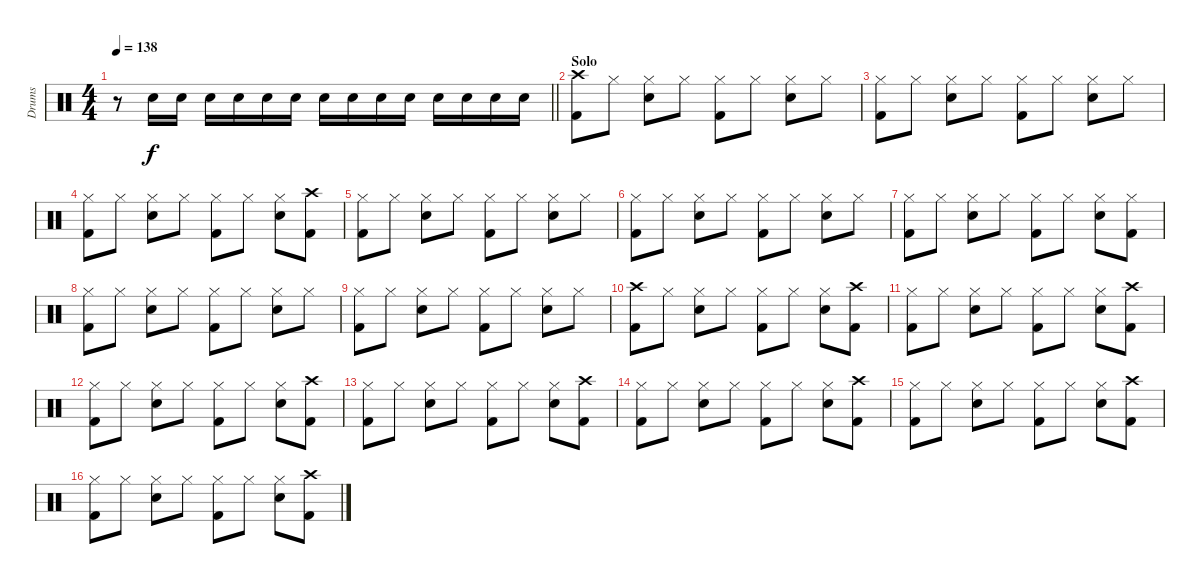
\track ("Drums" "Drums") {instrument percussion}
\staff {score}
\articulation defaults
\ts (4 4)
\tempo 138
\clef neutral
\barLineRight lightlight
\ks c
r.8{dy f} "Snare (hit) 2".16 "Snare (hit) 2".16 "Snare (hit) 2".16 "Snare (hit) 2".16 "Snare (hit) 2".16 "Snare (hit) 2".16 "Snare (hit) 2".16 "Snare (hit) 2".16 "Snare (hit) 2".16 "Snare (hit) 2".16 "Snare (hit) 2".16 "Snare (hit) 2".16 "Snare (hit) 2".16 "Snare (hit) 2".16 |
\section ("" "Solo")
("Crash high (hit)" "Kick (hit) 2").8 "Hi-Hat (closed)".8 ("Hi-Hat (closed)" "Snare (hit) 2").8 "Hi-Hat (closed)".8 ("Hi-Hat (closed)" "Kick (hit) 2").8 "Hi-Hat (closed)".8 ("Hi-Hat (closed)" "Snare (hit) 2").8 "Hi-Hat (closed)".8 |
("Hi-Hat (closed)" "Kick (hit) 2").8 "Hi-Hat (closed)".8 ("Hi-Hat (closed)" "Snare (hit) 2").8 "Hi-Hat (closed)".8 ("Hi-Hat (closed)" "Kick (hit) 2").8 "Hi-Hat (closed)".8 ("Hi-Hat (closed)" "Snare (hit) 2").8 "Hi-Hat (closed)".8 |
("Hi-Hat (closed)" "Kick (hit) 2").8 "Hi-Hat (closed)".8 ("Hi-Hat (closed)" "Snare (hit) 2").8 "Hi-Hat (closed)".8 ("Hi-Hat (closed)" "Kick (hit) 2").8 "Hi-Hat (closed)".8 ("Hi-Hat (closed)" "Snare (hit) 2").8 ("Crash high (hit)" "Kick (hit) 2").8 |
("Hi-Hat (closed)" "Kick (hit) 2").8 "Hi-Hat (closed)".8 ("Hi-Hat (closed)" "Snare (hit) 2").8 "Hi-Hat (closed)".8 ("Hi-Hat (closed)" "Kick (hit) 2").8 "Hi-Hat (closed)".8 ("Hi-Hat (closed)" "Snare (hit) 2").8 "Hi-Hat (closed)".8 |
("Hi-Hat (closed)" "Kick (hit) 2").8 "Hi-Hat (closed)".8 ("Hi-Hat (closed)" "Snare (hit) 2").8 "Hi-Hat (closed)".8 ("Hi-Hat (closed)" "Kick (hit) 2").8 "Hi-Hat (closed)".8 ("Hi-Hat (closed)" "Snare (hit) 2").8 "Hi-Hat (closed)".8 |
("Hi-Hat (closed)" "Kick (hit) 2").8 "Hi-Hat (closed)".8 ("Hi-Hat (closed)" "Snare (hit) 2").8 "Hi-Hat (closed)".8 ("Hi-Hat (closed)" "Kick (hit) 2").8 "Hi-Hat (closed)".8 ("Hi-Hat (closed)" "Snare (hit) 2").8 ("Hi-Hat (closed)" "Kick (hit) 2").8 |
("Hi-Hat (closed)" "Kick (hit) 2").8 "Hi-Hat (closed)".8 ("Hi-Hat (closed)" "Snare (hit) 2").8 "Hi-Hat (closed)".8 ("Hi-Hat (closed)" "Kick (hit) 2").8 "Hi-Hat (closed)".8 ("Hi-Hat (closed)" "Snare (hit) 2").8 "Hi-Hat (closed)".8 |
("Hi-Hat (closed)" "Kick (hit) 2").8 "Hi-Hat (closed)".8 ("Hi-Hat (closed)" "Snare (hit) 2").8 "Hi-Hat (closed)".8 ("Hi-Hat (closed)" "Kick (hit) 2").8 "Hi-Hat (closed)".8 ("Hi-Hat (closed)" "Snare (hit) 2").8 "Hi-Hat (closed)".8 |
("Crash high (hit)" "Kick (hit) 2").8 "Hi-Hat (closed)".8 ("Hi-Hat (closed)" "Snare (hit) 2").8 "Hi-Hat (closed)".8 ("Hi-Hat (closed)" "Kick (hit) 2").8 "Hi-Hat (closed)".8 ("Hi-Hat (closed)" "Snare (hit) 2").8 ("Crash high (hit)" "Kick (hit) 2").8 |
("Hi-Hat (closed)" "Kick (hit) 2").8 "Hi-Hat (closed)".8 ("Hi-Hat (closed)" "Snare (hit) 2").8 "Hi-Hat (closed)".8 ("Hi-Hat (closed)" "Kick (hit) 2").8 "Hi-Hat (closed)".8 ("Hi-Hat (closed)" "Snare (hit) 2").8 ("Crash high (hit)" "Kick (hit) 2").8 |
("Hi-Hat (closed)" "Kick (hit) 2").8 "Hi-Hat (closed)".8 ("Hi-Hat (closed)" "Snare (hit) 2").8 "Hi-Hat (closed)".8 ("Hi-Hat (closed)" "Kick (hit) 2").8 "Hi-Hat (closed)".8 ("Hi-Hat (closed)" "Snare (hit) 2").8 ("Crash high (hit)" "Kick (hit) 2").8 |
("Hi-Hat (closed)" "Kick (hit) 2").8 "Hi-Hat (closed)".8 ("Hi-Hat (closed)" "Snare (hit) 2").8 "Hi-Hat (closed)".8 ("Hi-Hat (closed)" "Kick (hit) 2").8 "Hi-Hat (closed)".8 ("Hi-Hat (closed)" "Snare (hit) 2").8 ("Crash high (hit)" "Kick (hit) 2").8 |
("Hi-Hat (closed)" "Kick (hit) 2").8 "Hi-Hat (closed)".8 ("Hi-Hat (closed)" "Snare (hit) 2").8 "Hi-Hat (closed)".8 ("Hi-Hat (closed)" "Kick (hit) 2").8 "Hi-Hat (closed)".8 ("Hi-Hat (closed)" "Snare (hit) 2").8 ("Crash high (hit)" "Kick (hit) 2").8 |
("Hi-Hat (closed)" "Kick (hit) 2").8 "Hi-Hat (closed)".8 ("Hi-Hat (closed)" "Snare (hit) 2").8 "Hi-Hat (closed)".8 ("Hi-Hat (closed)" "Kick (hit) 2").8 "Hi-Hat (closed)".8 ("Hi-Hat (closed)" "Snare (hit) 2").8 ("Crash high (hit)" "Kick (hit) 2").8 |
("Hi-Hat (closed)" "Kick (hit) 2").8 "Hi-Hat (closed)".8 ("Hi-Hat (closed)" "Snare (hit) 2").8 "Hi-Hat (closed)".8 ("Hi-Hat (closed)" "Kick (hit) 2").8 "Hi-Hat (closed)".8 ("Hi-Hat (closed)" "Snare (hit) 2").8 ("Crash high (hit)" "Kick (hit) 2").8
